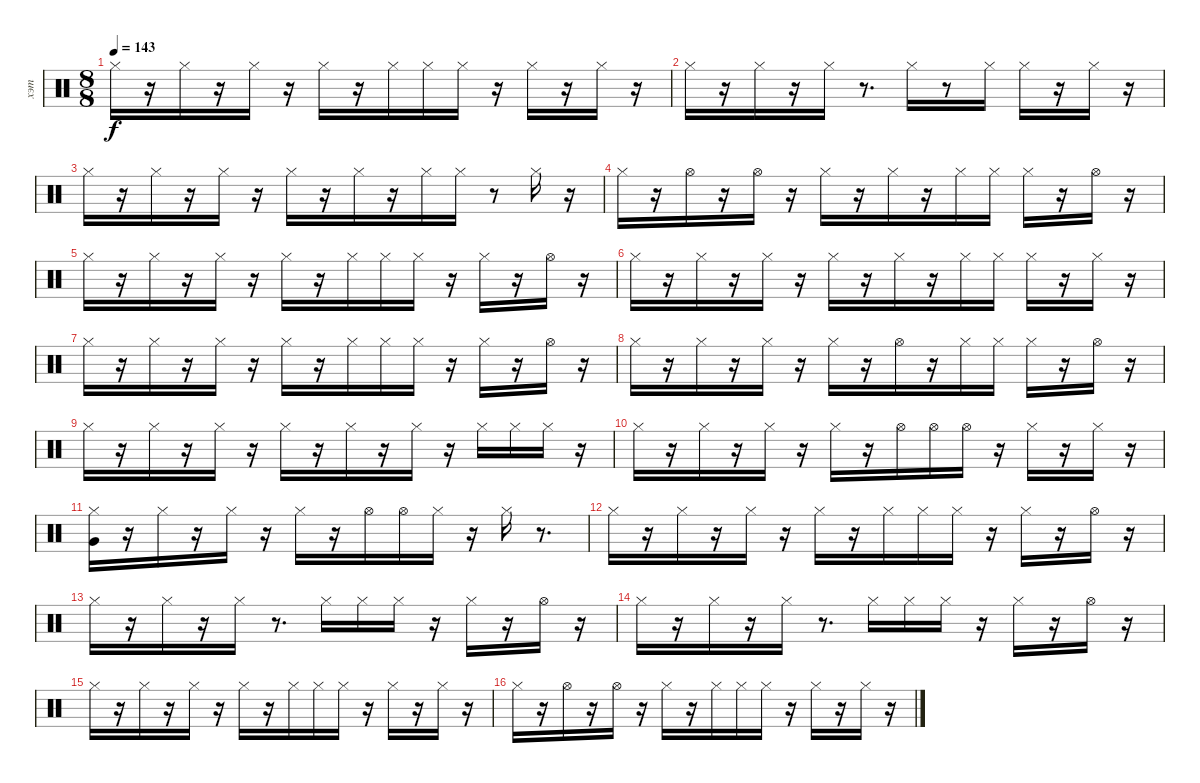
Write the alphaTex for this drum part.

\track ("хэт" "хэт") {instrument percussion}
\staff {score}
\articulation defaults
\ts (8 8)
\tempo 143
\clef neutral
\ks c "Hi-Hat (closed)".16{dy f}
r.16 "Hi-Hat (closed)".16 r.16 "Hi-Hat (closed)".16 r.16 "Hi-Hat (closed)".16 r.16 "Hi-Hat (closed)".16 "Hi-Hat (closed)".16 "Hi-Hat (closed)".16 r.16 "Hi-Hat (closed)".16 r.16 "Hi-Hat (closed)".16 r.16 |
"Hi-Hat (closed)".16 r.16 "Hi-Hat (closed)".16 r.16 "Hi-Hat (closed)".16 r.8{d} "Hi-Hat (closed)".16 r.8 "Hi-Hat (closed)".16 "Hi-Hat (closed)".16 r.16 "Hi-Hat (closed)".16 r.16 |
"Hi-Hat (closed)".16 r.16 "Hi-Hat (closed)".16 r.16 "Hi-Hat (closed)".16 r.16 "Hi-Hat (closed)".16 r.16 "Hi-Hat (closed)".16 r.16 "Hi-Hat (closed)".16 "Hi-Hat (closed)".16 r.8 "Hi-Hat (closed)".16 r.16 |
"Hi-Hat (closed)".16 r.16 "Hi-Hat (open)".16 r.16 "Hi-Hat (open)".16 r.16 "Hi-Hat (closed)".16 r.16 "Hi-Hat (closed)".16 r.16 "Hi-Hat (closed)".16 "Hi-Hat (closed)".16 "Hi-Hat (closed)".16 r.16 "Hi-Hat (open)".16 r.16 |
"Hi-Hat (closed)".16 r.16 "Hi-Hat (closed)".16 r.16 "Hi-Hat (closed)".16 r.16 "Hi-Hat (closed)".16 r.16 "Hi-Hat (closed)".16 "Hi-Hat (closed)".16 "Hi-Hat (closed)".16 r.16 "Hi-Hat (closed)".16 r.16 "Hi-Hat (open)".16 r.16 |
"Hi-Hat (closed)".16 r.16 "Hi-Hat (closed)".16 r.16 "Hi-Hat (closed)".16 r.16 "Hi-Hat (closed)".16 r.16 "Hi-Hat (closed)".16 r.16 "Hi-Hat (closed)".16 "Hi-Hat (closed)".16 "Hi-Hat (closed)".16 r.16 "Hi-Hat (closed)".16 r.16 |
"Hi-Hat (closed)".16 r.16 "Hi-Hat (closed)".16 r.16 "Hi-Hat (closed)".16 r.16 "Hi-Hat (closed)".16 r.16 "Hi-Hat (closed)".16 "Hi-Hat (closed)".16 "Hi-Hat (closed)".16 r.16 "Hi-Hat (closed)".16 r.16 "Hi-Hat (open)".16 r.16 |
"Hi-Hat (closed)".16 r.16 "Hi-Hat (closed)".16 r.16 "Hi-Hat (closed)".16 r.16 "Hi-Hat (closed)".16 r.16 "Hi-Hat (open)".16 r.16 "Hi-Hat (closed)".16 "Hi-Hat (closed)".16 "Hi-Hat (closed)".16 r.16 "Hi-Hat (open)".16 r.16 |
"Hi-Hat (closed)".16 r.16 "Hi-Hat (closed)".16 r.16 "Hi-Hat (closed)".16 r.16 "Hi-Hat (closed)".16 r.16 "Hi-Hat (closed)".16 r.16 "Hi-Hat (closed)".16 r.16 "Hi-Hat (closed)".16 "Hi-Hat (closed)".16 "Hi-Hat (closed)".16 r.16 |
"Hi-Hat (closed)".16 r.16 "Hi-Hat (closed)".16 r.16 "Hi-Hat (closed)".16 r.16 "Hi-Hat (closed)".16 r.16 "Hi-Hat (open)".16 "Hi-Hat (open)".16 "Hi-Hat (open)".16 r.16 "Hi-Hat (closed)".16 r.16 "Hi-Hat (closed)".16 r.16 |
("Hi-Hat (closed)" "Very Low Tom (hit)").16 r.16 "Hi-Hat (closed)".16 r.16 "Hi-Hat (closed)".16 r.16 "Hi-Hat (closed)".16 r.16 "Hi-Hat (open)".16 "Hi-Hat (open)".16 "Hi-Hat (closed)".16 r.16 "Hi-Hat (closed)".16 r.8{d} |
"Hi-Hat (closed)".16 r.16 "Hi-Hat (closed)".16 r.16 "Hi-Hat (closed)".16 r.16 "Hi-Hat (closed)".16 r.16 "Hi-Hat (closed)".16 "Hi-Hat (closed)".16 "Hi-Hat (closed)".16 r.16 "Hi-Hat (closed)".16 r.16 "Hi-Hat (open)".16 r.16 |
"Hi-Hat (closed)".16 r.16 "Hi-Hat (closed)".16 r.16 "Hi-Hat (closed)".16 r.8{d} "Hi-Hat (closed)".16 "Hi-Hat (closed)".16 "Hi-Hat (closed)".16 r.16 "Hi-Hat (closed)".16 r.16 "Hi-Hat (open)".16 r.16 |
"Hi-Hat (closed)".16 r.16 "Hi-Hat (closed)".16 r.16 "Hi-Hat (closed)".16 r.8{d} "Hi-Hat (closed)".16 "Hi-Hat (closed)".16 "Hi-Hat (closed)".16 r.16 "Hi-Hat (closed)".16 r.16 "Hi-Hat (open)".16 r.16 |
"Hi-Hat (closed)".16 r.16 "Hi-Hat (closed)".16 r.16 "Hi-Hat (closed)".16 r.16 "Hi-Hat (closed)".16 r.16 "Hi-Hat (closed)".16 "Hi-Hat (closed)".16 "Hi-Hat (closed)".16 r.16 "Hi-Hat (closed)".16 r.16 "Hi-Hat (closed)".16 r.16 |
"Hi-Hat (closed)".16 r.16 "Hi-Hat (open)".16 r.16 "Hi-Hat (open)".16 r.16 "Hi-Hat (closed)".16 r.16 "Hi-Hat (closed)".16 "Hi-Hat (closed)".16 "Hi-Hat (closed)".16 r.16 "Hi-Hat (closed)".16 r.16 "Hi-Hat (closed)".16 r.16
